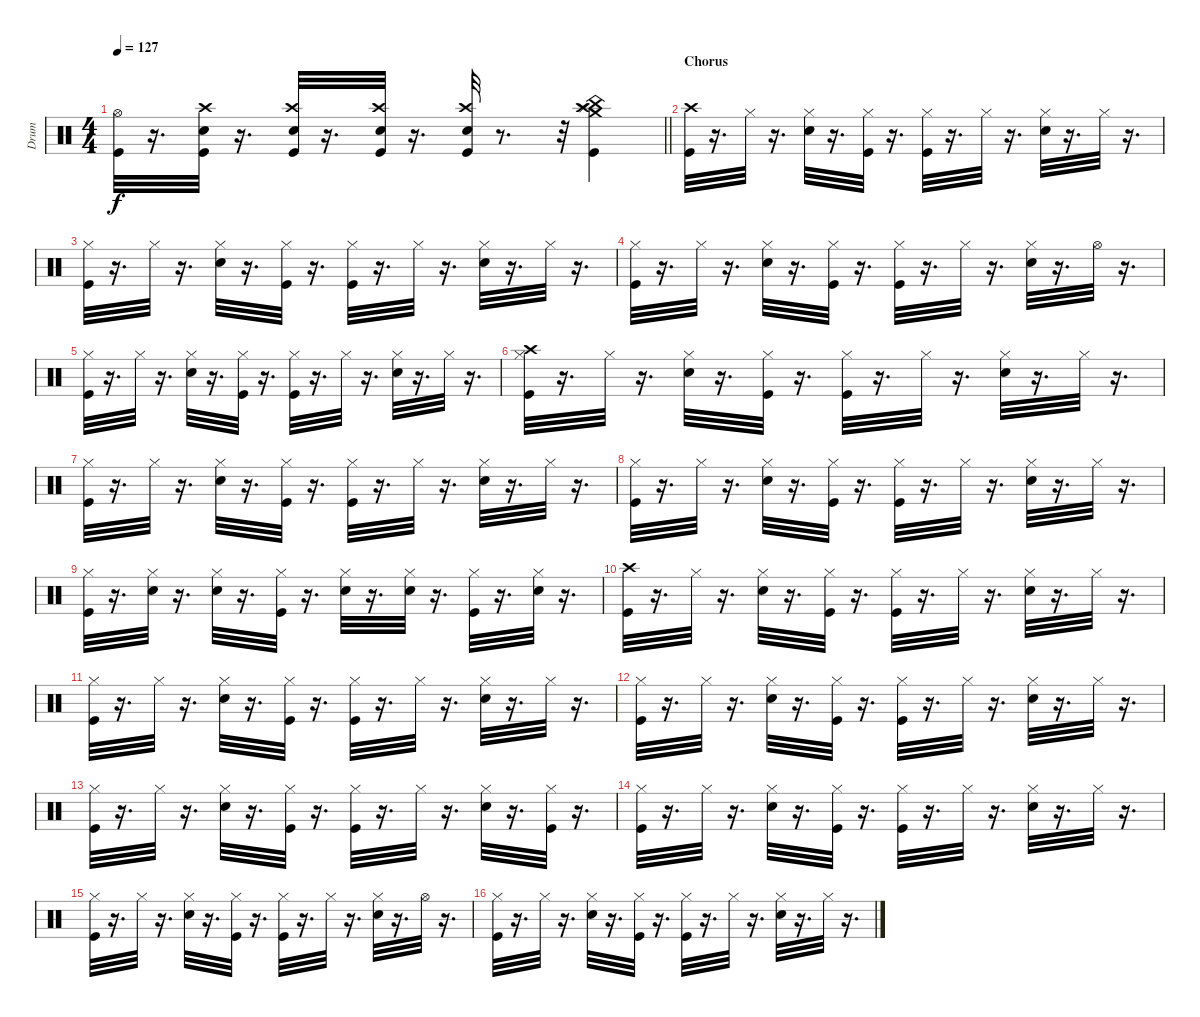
\track ("Drum" "Drum") {instrument percussion}
\staff {score}
\articulation defaults
\ts (4 4)
\tempo 127
\clef neutral
\barLineRight lightlight
\ks c
("Kick (hit)" "Hi-Hat (open)").32{dy f} r.16{d} ("Crash high (hit)" "Kick (hit)" "Snare (hit) 2").32 r.16{d} ("Snare (hit) 2" "Crash high (hit)" "Kick (hit)").32 r.16{d} ("Snare (hit) 2" "Kick (hit)" "Crash high (hit)").32 r.16{d} ("Snare (hit) 2" "Kick (hit)" "Crash high (hit)").32 r.8{d} r.32 ("Crash medium (hit)" "Kick (hit)" "Splash (hit)" "China (hit)" "Crash high (hit)").4 |
\section ("" "Chorus")
("Crash high (hit)" "Kick (hit)").32 r.16{d} "Hi-Hat (closed)".32 r.16{d} ("Snare (hit) 2" "Hi-Hat (closed)").32 r.16{d} ("Kick (hit)" "Hi-Hat (closed)").32 r.16{d} ("Hi-Hat (closed)" "Kick (hit)").32 r.16{d} "Hi-Hat (closed)".32 r.16{d} ("Snare (hit) 2" "Hi-Hat (closed)").32 r.16{d} "Hi-Hat (closed)".32 r.16{d} |
("Kick (hit)" "Hi-Hat (closed)").32 r.16{d} "Hi-Hat (closed)".32 r.16{d} ("Snare (hit) 2" "Hi-Hat (closed)").32 r.16{d} ("Kick (hit)" "Hi-Hat (closed)").32 r.16{d} ("Hi-Hat (closed)" "Kick (hit)").32 r.16{d} "Hi-Hat (closed)".32 r.16{d} ("Snare (hit) 2" "Hi-Hat (closed)").32 r.16{d} "Hi-Hat (closed)".32 r.16{d} |
("Kick (hit)" "Hi-Hat (closed)").32 r.16{d} "Hi-Hat (closed)".32 r.16{d} ("Snare (hit) 2" "Hi-Hat (closed)").32 r.16{d} ("Kick (hit)" "Hi-Hat (closed)").32 r.16{d} ("Hi-Hat (closed)" "Kick (hit)").32 r.16{d} "Hi-Hat (closed)".32 r.16{d} ("Snare (hit) 2" "Hi-Hat (closed)").32 r.16{d} "Hi-Hat (open)".32 r.16{d} |
("Kick (hit)" "Hi-Hat (closed)").32 r.16{d} "Hi-Hat (closed)".32 r.16{d} ("Snare (hit) 2" "Hi-Hat (closed)").32 r.16{d} ("Kick (hit)" "Hi-Hat (closed)").32 r.16{d} ("Hi-Hat (closed)" "Kick (hit)").32 r.16{d} "Hi-Hat (closed)".32 r.16{d} ("Snare (hit) 2" "Hi-Hat (closed)").32 r.16{d} "Hi-Hat (closed)".32 r.16{d} |
("Kick (hit)" "Hi-Hat (closed)" "Crash high (hit)").32 r.16{d} "Hi-Hat (closed)".32 r.16{d} ("Snare (hit) 2" "Hi-Hat (closed)").32 r.16{d} ("Kick (hit)" "Hi-Hat (closed)").32 r.16{d} ("Hi-Hat (closed)" "Kick (hit)").32 r.16{d} "Hi-Hat (closed)".32 r.16{d} ("Snare (hit) 2" "Hi-Hat (closed)").32 r.16{d} "Hi-Hat (closed)".32 r.16{d} |
("Kick (hit)" "Hi-Hat (closed)").32 r.16{d} "Hi-Hat (closed)".32 r.16{d} ("Snare (hit) 2" "Hi-Hat (closed)").32 r.16{d} ("Kick (hit)" "Hi-Hat (closed)").32 r.16{d} ("Hi-Hat (closed)" "Kick (hit)").32 r.16{d} "Hi-Hat (closed)".32 r.16{d} ("Snare (hit) 2" "Hi-Hat (closed)").32 r.16{d} "Hi-Hat (closed)".32 r.16{d} |
("Kick (hit)" "Hi-Hat (closed)").32 r.16{d} "Hi-Hat (closed)".32 r.16{d} ("Snare (hit) 2" "Hi-Hat (closed)").32 r.16{d} ("Kick (hit)" "Hi-Hat (closed)").32 r.16{d} ("Hi-Hat (closed)" "Kick (hit)").32 r.16{d} "Hi-Hat (closed)".32 r.16{d} ("Snare (hit) 2" "Hi-Hat (closed)").32 r.16{d} "Hi-Hat (closed)".32 r.16{d} |
("Kick (hit)" "Hi-Hat (closed)").32 r.16{d} ("Hi-Hat (closed)" "Snare (hit) 2").32 r.16{d} ("Snare (hit) 2" "Hi-Hat (closed)").32 r.16{d} ("Kick (hit)" "Hi-Hat (closed)").32 r.16{d} ("Hi-Hat (closed)" "Snare (hit) 2").32 r.16{d} ("Hi-Hat (closed)" "Snare (hit) 2").32 r.16{d} ("Hi-Hat (closed)" "Kick (hit)").32 r.16{d} ("Hi-Hat (closed)" "Snare (hit) 2").32 r.16{d} |
("Crash high (hit)" "Kick (hit)").32 r.16{d} "Hi-Hat (closed)".32 r.16{d} ("Snare (hit) 2" "Hi-Hat (closed)").32 r.16{d} ("Kick (hit)" "Hi-Hat (closed)").32 r.16{d} ("Hi-Hat (closed)" "Kick (hit)").32 r.16{d} "Hi-Hat (closed)".32 r.16{d} ("Snare (hit) 2" "Hi-Hat (closed)").32 r.16{d} "Hi-Hat (closed)".32 r.16{d} |
("Kick (hit)" "Hi-Hat (closed)").32 r.16{d} "Hi-Hat (closed)".32 r.16{d} ("Snare (hit) 2" "Hi-Hat (closed)").32 r.16{d} ("Kick (hit)" "Hi-Hat (closed)").32 r.16{d} ("Hi-Hat (closed)" "Kick (hit)").32 r.16{d} "Hi-Hat (closed)".32 r.16{d} ("Snare (hit) 2" "Hi-Hat (closed)").32 r.16{d} "Hi-Hat (closed)".32 r.16{d} |
("Kick (hit)" "Hi-Hat (closed)").32 r.16{d} "Hi-Hat (closed)".32 r.16{d} ("Snare (hit) 2" "Hi-Hat (closed)").32 r.16{d} ("Kick (hit)" "Hi-Hat (closed)").32 r.16{d} ("Hi-Hat (closed)" "Kick (hit)").32 r.16{d} "Hi-Hat (closed)".32 r.16{d} ("Snare (hit) 2" "Hi-Hat (closed)").32 r.16{d} "Hi-Hat (closed)".32 r.16{d} |
("Kick (hit)" "Hi-Hat (closed)").32 r.16{d} "Hi-Hat (closed)".32 r.16{d} ("Snare (hit) 2" "Hi-Hat (closed)").32 r.16{d} ("Kick (hit)" "Hi-Hat (closed)").32 r.16{d} ("Hi-Hat (closed)" "Kick (hit)").32 r.16{d} "Hi-Hat (closed)".32 r.16{d} ("Snare (hit) 2" "Hi-Hat (closed)").32 r.16{d} ("Hi-Hat (closed)" "Kick (hit)").32 r.16{d} |
("Kick (hit)" "Hi-Hat (closed)").32 r.16{d} "Hi-Hat (closed)".32 r.16{d} ("Snare (hit) 2" "Hi-Hat (closed)").32 r.16{d} ("Kick (hit)" "Hi-Hat (closed)").32 r.16{d} ("Hi-Hat (closed)" "Kick (hit)").32 r.16{d} "Hi-Hat (closed)".32 r.16{d} ("Snare (hit) 2" "Hi-Hat (closed)").32 r.16{d} "Hi-Hat (closed)".32 r.16{d} |
("Kick (hit)" "Hi-Hat (closed)").32 r.16{d} "Hi-Hat (closed)".32 r.16{d} ("Snare (hit) 2" "Hi-Hat (closed)").32 r.16{d} ("Kick (hit)" "Hi-Hat (closed)").32 r.16{d} ("Hi-Hat (closed)" "Kick (hit)").32 r.16{d} "Hi-Hat (closed)".32 r.16{d} ("Snare (hit) 2" "Hi-Hat (closed)").32 r.16{d} "Hi-Hat (open)".32 r.16{d} |
("Kick (hit)" "Hi-Hat (closed)").32 r.16{d} "Hi-Hat (closed)".32 r.16{d} ("Snare (hit) 2" "Hi-Hat (closed)").32 r.16{d} ("Kick (hit)" "Hi-Hat (closed)").32 r.16{d} ("Hi-Hat (closed)" "Kick (hit)").32 r.16{d} "Hi-Hat (closed)".32 r.16{d} ("Snare (hit) 2" "Hi-Hat (closed)").32 r.16{d} "Hi-Hat (closed)".32 r.16{d}
